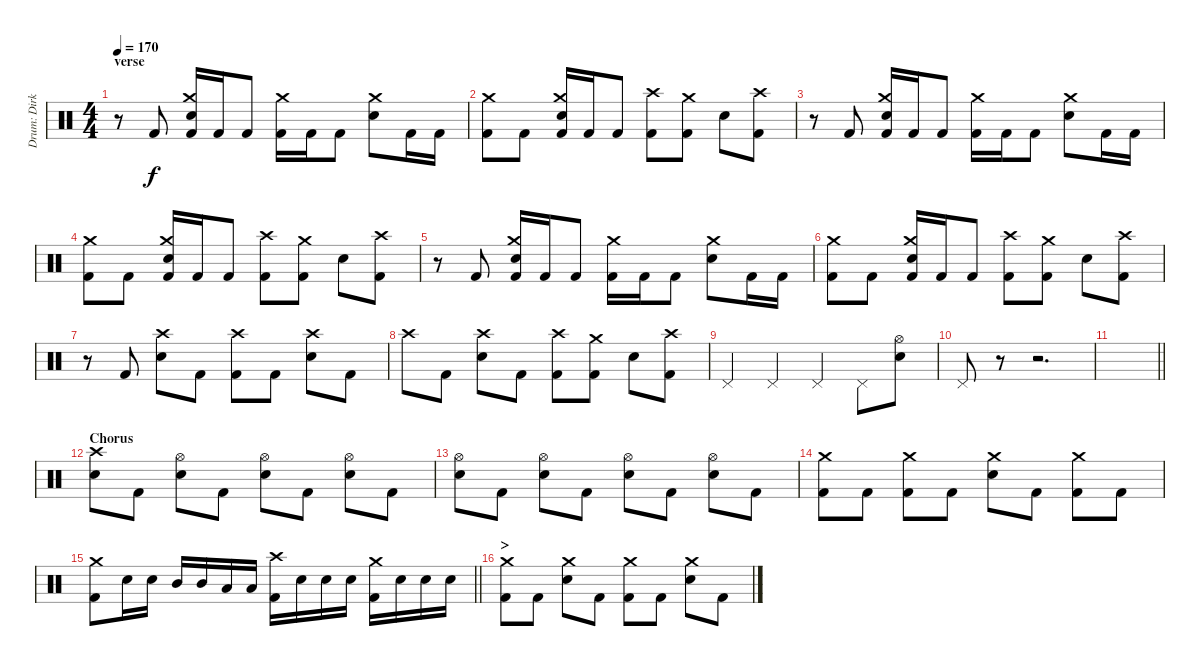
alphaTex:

\track ("Drum: Dirk" "Drum: Dirk") {instrument percussion}
\staff {score}
\articulation defaults
\ts (4 4)
\section ("" "verse")
\tempo 170
\clef neutral
\ks c
r.8{dy f} "Kick (hit) 2".8 ("Crash medium (hit)" "Electric Snare (hit)" "Kick (hit) 2").16 "Kick (hit) 2".16 "Kick (hit) 2".8 ("Crash medium (hit)" "Kick (hit) 2").16 "Kick (hit) 2".16 "Kick (hit) 2".8 ("Crash medium (hit)" "Electric Snare (hit)").8 "Kick (hit) 2".16 "Kick (hit) 2".16 |
("Crash medium (hit)" "Kick (hit) 2").8 "Kick (hit) 2".8 ("Crash medium (hit)" "Electric Snare (hit)" "Kick (hit) 2").16 "Kick (hit) 2".16 "Kick (hit) 2".8 ("Crash high (hit)" "Kick (hit) 2").8 ("Crash medium (hit)" "Kick (hit) 2").8 "Electric Snare (hit)".8 ("Crash high (hit)" "Kick (hit) 2").8 |
r.8 "Kick (hit) 2".8 ("Crash medium (hit)" "Electric Snare (hit)" "Kick (hit) 2").16 "Kick (hit) 2".16 "Kick (hit) 2".8 ("Crash medium (hit)" "Kick (hit) 2").16 "Kick (hit) 2".16 "Kick (hit) 2".8 ("Crash medium (hit)" "Electric Snare (hit)").8 "Kick (hit) 2".16 "Kick (hit) 2".16 |
("Crash medium (hit)" "Kick (hit) 2").8 "Kick (hit) 2".8 ("Crash medium (hit)" "Electric Snare (hit)" "Kick (hit) 2").16 "Kick (hit) 2".16 "Kick (hit) 2".8 ("Crash high (hit)" "Kick (hit) 2").8 ("Crash medium (hit)" "Kick (hit) 2").8 "Electric Snare (hit)".8 ("Crash high (hit)" "Kick (hit) 2").8 |
r.8 "Kick (hit) 2".8 ("Crash medium (hit)" "Electric Snare (hit)" "Kick (hit) 2").16 "Kick (hit) 2".16 "Kick (hit) 2".8 ("Crash medium (hit)" "Kick (hit) 2").16 "Kick (hit) 2".16 "Kick (hit) 2".8 ("Crash medium (hit)" "Electric Snare (hit)").8 "Kick (hit) 2".16 "Kick (hit) 2".16 |
("Crash medium (hit)" "Kick (hit) 2").8 "Kick (hit) 2".8 ("Crash medium (hit)" "Electric Snare (hit)" "Kick (hit) 2").16 "Kick (hit) 2".16 "Kick (hit) 2".8 ("Crash high (hit)" "Kick (hit) 2").8 ("Crash medium (hit)" "Kick (hit) 2").8 "Electric Snare (hit)".8 ("Crash high (hit)" "Kick (hit) 2").8 |
r.8 "Kick (hit) 2".8 ("Crash high (hit)" "Electric Snare (hit)").8 "Kick (hit) 2".8 ("Crash high (hit)" "Kick (hit) 2").8 "Kick (hit) 2".8 ("Crash high (hit)" "Electric Snare (hit)").8 "Kick (hit) 2".8 |
"Crash high (hit)".8 "Kick (hit) 2".8 ("Crash high (hit)" "Electric Snare (hit)").8 "Kick (hit) 2".8 ("Crash high (hit)" "Kick (hit) 2").8 ("Crash medium (hit)" "Kick (hit) 2").8 "Electric Snare (hit)".8 ("Crash high (hit)" "Kick (hit) 2").8 |
"Pedal Hi-Hat (hit)".4 "Pedal Hi-Hat (hit)".4 "Pedal Hi-Hat (hit)".4 "Pedal Hi-Hat (hit)".8 ("Hi-Hat (open)" "Electric Snare (hit)").8 |
"Pedal Hi-Hat (hit)".8 r.8 r.2{d} |
\barLineRight lightlight
|
\section ("" "Chorus")
("Crash high (hit)" "Electric Snare (hit)").8 "Kick (hit) 2".8 ("Hi-Hat (open)" "Electric Snare (hit)").8 "Kick (hit) 2".8 ("Hi-Hat (open)" "Electric Snare (hit)").8 "Kick (hit) 2".8 ("Hi-Hat (open)" "Electric Snare (hit)").8 "Kick (hit) 2".8 |
("Hi-Hat (open)" "Electric Snare (hit)").8 "Kick (hit) 2".8 ("Hi-Hat (open)" "Electric Snare (hit)").8 "Kick (hit) 2".8 ("Hi-Hat (open)" "Electric Snare (hit)").8 "Kick (hit) 2".8 ("Hi-Hat (open)" "Electric Snare (hit)").8 "Kick (hit) 2".8 |
("Crash medium (hit)" "Kick (hit) 2").8 "Kick (hit) 2".8 ("Crash medium (hit)" "Kick (hit) 2").8 "Kick (hit) 2".8 ("Crash medium (hit)" "Electric Snare (hit)").8 "Kick (hit) 2".8 ("Crash medium (hit)" "Kick (hit) 2").8 "Kick (hit) 2".8 |
\barLineRight lightlight
("Crash medium (hit)" "Kick (hit) 2").8 "Electric Snare (hit)".16 "Electric Snare (hit)".16 "Mid Tom (hit)".16 "Mid Tom (hit)".16 "Low Tom (hit)".16 "Low Tom (hit)".16 ("Crash high (hit)" "Kick (hit) 2").16 "Electric Snare (hit)".16 "Electric Snare (hit)".16 "Electric Snare (hit)".16 ("Crash medium (hit)" "Kick (hit) 2").16 "Electric Snare (hit)".16 "Electric Snare (hit)".16 "Electric Snare (hit)".16 |
\section ("" ">")
("Crash medium (hit)" "Kick (hit) 2").8 "Kick (hit) 2".8 ("Crash medium (hit)" "Electric Snare (hit)").8 "Kick (hit) 2".8 ("Crash medium (hit)" "Kick (hit) 2").8 "Kick (hit) 2".8 ("Crash medium (hit)" "Electric Snare (hit)").8 "Kick (hit) 2".8
